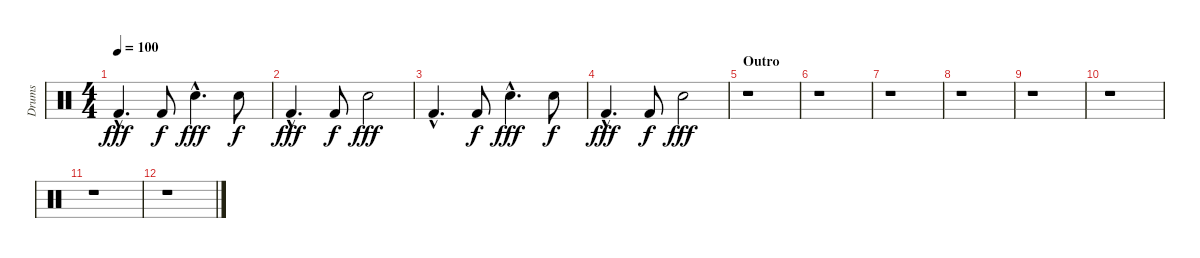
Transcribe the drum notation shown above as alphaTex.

\track ("Drums" "Drums") {instrument percussion}
\staff {score}
\articulation defaults
\ts (4 4)
\tempo 100
\clef neutral
\ks c "Kick (hit) 2"{hac}.4{d dy fff} "Kick (hit) 2".8{dy f} "Electric Snare (hit)"{hac}.4{d dy fff} "Electric Snare (hit)".8{dy f}
|
"Kick (hit) 2"{hac}.4{d dy fff} "Kick (hit) 2".8{dy f} "Electric Snare (hit)".2{dy fff} |
"Kick (hit) 2"{hac}.4{d} "Kick (hit) 2".8{dy f} "Electric Snare (hit)"{hac}.4{d dy fff} "Electric Snare (hit)".8{dy f} |
"Kick (hit) 2"{hac}.4{d dy fff} "Kick (hit) 2".8{dy f} "Electric Snare (hit)".2{dy fff} |
\section ("" "Outro")
r.1 |
r.1 |
r.1 |
r.1 |
r.1 |
r.1 |
r.1 |
r.1
